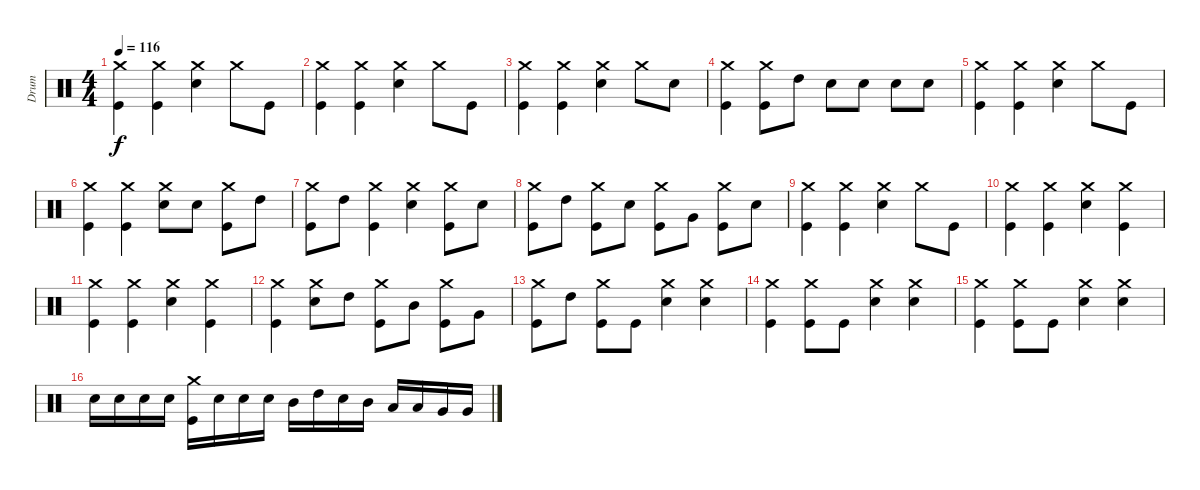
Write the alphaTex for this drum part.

\track ("Drum" "Drum") {instrument percussion}
\staff {score}
\articulation defaults
\ts (4 4)
\tempo 116
\clef neutral
\ks c
("Kick (hit)" "Crash medium (hit)").4{dy f} ("Kick (hit)" "Crash medium (hit)").4 ("Electric Snare (hit)" "Crash medium (hit)").4 "Crash medium (hit)".8 "Kick (hit)".8 |
("Kick (hit)" "Crash medium (hit)").4 ("Kick (hit)" "Crash medium (hit)").4 ("Electric Snare (hit)" "Crash medium (hit)").4 "Crash medium (hit)".8 "Kick (hit)".8 |
("Kick (hit)" "Crash medium (hit)").4 ("Kick (hit)" "Crash medium (hit)").4 ("Electric Snare (hit)" "Crash medium (hit)").4 "Crash medium (hit)".8 "Electric Snare (hit)".8 |
("Kick (hit)" "Crash medium (hit)").4 ("Kick (hit)" "Crash medium (hit)").8 "High Tom (hit)".8 "Electric Snare (hit)".8 "Electric Snare (hit)".8 "Electric Snare (hit)".8 "Electric Snare (hit)".8 |
("Kick (hit)" "Crash medium (hit)").4 ("Kick (hit)" "Crash medium (hit)").4 ("Electric Snare (hit)" "Crash medium (hit)").4 "Crash medium (hit)".8 "Kick (hit)".8 |
("Kick (hit)" "Crash medium (hit)").4 ("Kick (hit)" "Crash medium (hit)").4 ("Electric Snare (hit)" "Crash medium (hit)").8 "Electric Snare (hit)".8 ("Kick (hit)" "Crash medium (hit)").8 "High Tom (hit)".8 |
("Kick (hit)" "Crash medium (hit)").8 "High Tom (hit)".8 ("Kick (hit)" "Crash medium (hit)").4 ("Electric Snare (hit)" "Crash medium (hit)").4 ("Kick (hit)" "Crash medium (hit)").8 "Electric Snare (hit)".8 |
("Kick (hit)" "Crash medium (hit)").8 "High Tom (hit)".8 ("Kick (hit)" "Crash medium (hit)").8 "Electric Snare (hit)".8 ("Kick (hit)" "Crash medium (hit)").8 "Very Low Tom (hit)".8 ("Kick (hit)" "Crash medium (hit)").8 "Electric Snare (hit)".8 |
("Kick (hit)" "Crash medium (hit)").4 ("Kick (hit)" "Crash medium (hit)").4 ("Electric Snare (hit)" "Crash medium (hit)").4 "Crash medium (hit)".8 "Kick (hit)".8 |
("Kick (hit)" "Crash medium (hit)").4 ("Kick (hit)" "Crash medium (hit)").4 ("Electric Snare (hit)" "Crash medium (hit)").4 ("Kick (hit)" "Crash medium (hit)").4 |
("Kick (hit)" "Crash medium (hit)").4 ("Kick (hit)" "Crash medium (hit)").4 ("Electric Snare (hit)" "Crash medium (hit)").4 ("Kick (hit)" "Crash medium (hit)").4 |
("Kick (hit)" "Crash medium (hit)").4 ("Electric Snare (hit)" "Crash medium (hit)").8 "High Tom (hit)".8 ("Kick (hit)" "Crash medium (hit)").8 "Mid Tom (hit)".8 ("Kick (hit)" "Crash medium (hit)").8 "Very Low Tom (hit)".8 |
("Kick (hit)" "Crash medium (hit)").8 "High Tom (hit)".8 ("Kick (hit)" "Crash medium (hit)").8 "Kick (hit)".8 ("Electric Snare (hit)" "Crash medium (hit)").4 ("Electric Snare (hit)" "Crash medium (hit)").4 |
("Kick (hit)" "Crash medium (hit)").4 ("Kick (hit)" "Crash medium (hit)").8 "Kick (hit)".8 ("Electric Snare (hit)" "Crash medium (hit)").4 ("Electric Snare (hit)" "Crash medium (hit)").4 |
("Kick (hit)" "Crash medium (hit)").4 ("Kick (hit)" "Crash medium (hit)").8 "Kick (hit)".8 ("Electric Snare (hit)" "Crash medium (hit)").4 ("Electric Snare (hit)" "Crash medium (hit)").4 |
"Electric Snare (hit)".16 "Electric Snare (hit)".16 "Electric Snare (hit)".16 "Electric Snare (hit)".16 ("Kick (hit)" "Crash medium (hit)").16 "Electric Snare (hit)".16 "Electric Snare (hit)".16 "Electric Snare (hit)".16 "Mid Tom (hit)".16 "High Tom (hit)".16 "Electric Snare (hit)".16 "Mid Tom (hit)".16 "Low Tom (hit)".16 "Low Tom (hit)".16 "Very Low Tom (hit)".16 "Very Low Tom (hit)".16
